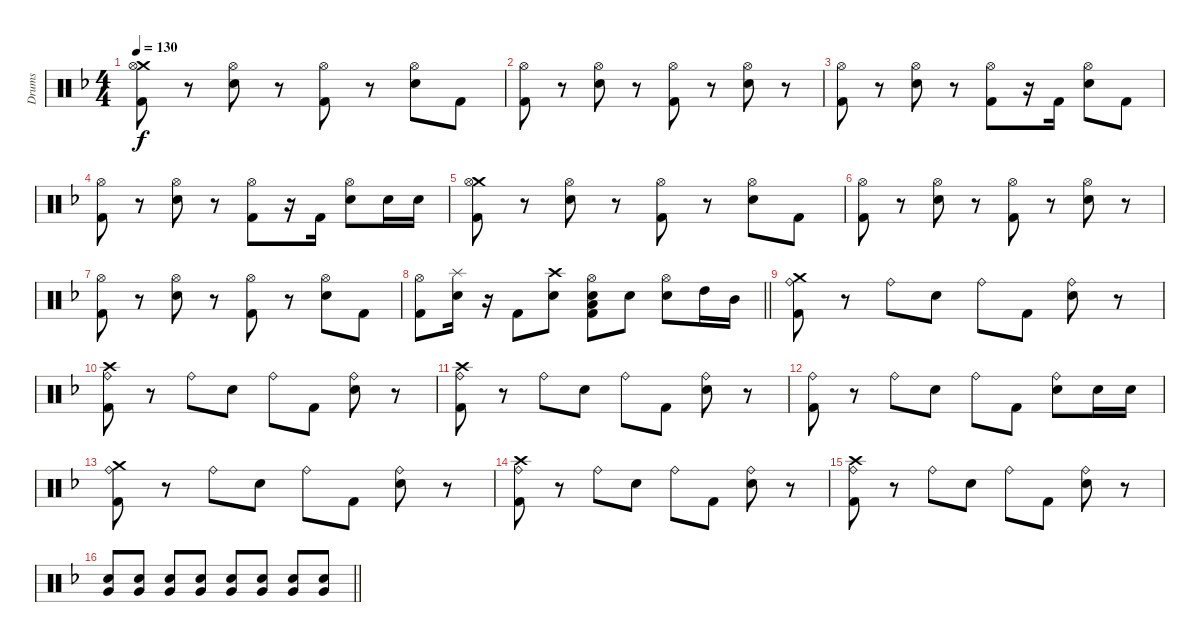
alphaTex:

\track ("Drums" "Drums") {instrument percussion}
\staff {score}
\articulation defaults
\ts (4 4)
\tempo 130
\clef neutral
\ks dminor
("Crash medium (hit)" "Hi-Hat (open)" "Kick (hit) 2").8{dy f} r.8 ("Hi-Hat (open)" "Electric Snare (hit)").8 r.8 ("Hi-Hat (open)" "Kick (hit) 2").8 r.8 ("Hi-Hat (open)" "Electric Snare (hit)").8 "Kick (hit) 2".8 |
("Hi-Hat (open)" "Kick (hit) 2").8 r.8 ("Hi-Hat (open)" "Electric Snare (hit)").8 r.8 ("Hi-Hat (open)" "Kick (hit) 2").8 r.8 ("Hi-Hat (open)" "Electric Snare (hit)").8 r.8 |
("Hi-Hat (open)" "Kick (hit) 2").8 r.8 ("Hi-Hat (open)" "Electric Snare (hit)").8 r.8 ("Hi-Hat (open)" "Kick (hit) 2").8 r.16 "Kick (hit) 2".16 ("Hi-Hat (open)" "Electric Snare (hit)").8 "Kick (hit) 2".8 |
("Hi-Hat (open)" "Kick (hit) 2").8 r.8 ("Hi-Hat (open)" "Electric Snare (hit)").8 r.8 ("Hi-Hat (open)" "Kick (hit) 2").8 r.16 "Kick (hit) 2".16 ("Hi-Hat (open)" "Electric Snare (hit)").8 "Electric Snare (hit)".16 "Electric Snare (hit)".16 |
("Crash medium (hit)" "Hi-Hat (open)" "Kick (hit) 2").8 r.8 ("Hi-Hat (open)" "Electric Snare (hit)").8 r.8 ("Hi-Hat (open)" "Kick (hit) 2").8 r.8 ("Hi-Hat (open)" "Electric Snare (hit)").8 "Kick (hit) 2".8 |
("Hi-Hat (open)" "Kick (hit) 2").8 r.8 ("Hi-Hat (open)" "Electric Snare (hit)").8 r.8 ("Hi-Hat (open)" "Kick (hit) 2").8 r.8 ("Hi-Hat (open)" "Electric Snare (hit)").8 r.8 |
("Hi-Hat (open)" "Kick (hit) 2").8 r.8 ("Hi-Hat (open)" "Electric Snare (hit)").8 r.8 ("Hi-Hat (open)" "Kick (hit) 2").8 r.8 ("Hi-Hat (open)" "Electric Snare (hit)").8 "Kick (hit) 2".8 |
\barLineRight lightlight
("Hi-Hat (open)" "Kick (hit) 2").8 ("Splash (hit)" "Electric Snare (hit)").16 r.16 "Kick (hit) 2".8 ("Crash high (hit)" "Electric Snare (hit)").8 ("Hi-Hat (open)" "Electric Snare (hit)" "Low Tom (hit)" "Kick (hit) 2").8 "Electric Snare (hit)".8 ("Hi-Hat (open)" "Electric Snare (hit)").8 "High Tom (hit)".16 "Mid Tom (hit)".16 |
\section ("" "")
("Crash medium (hit)" "Ride (bell)" "Kick (hit) 2").8 r.8 "Ride (bell)".8 "Electric Snare (hit)".8 "Ride (bell)".8 "Kick (hit) 2".8 ("Ride (bell)" "Electric Snare (hit)").8 r.8 |
("Crash high (hit)" "Ride (bell)" "Kick (hit) 2").8 r.8 "Ride (bell)".8 "Electric Snare (hit)".8 "Ride (bell)".8 "Kick (hit) 2".8 ("Ride (bell)" "Electric Snare (hit)").8 r.8 |
("Crash high (hit)" "Ride (bell)" "Kick (hit) 2").8 r.8 "Ride (bell)".8 "Electric Snare (hit)".8 "Ride (bell)".8 "Kick (hit) 2".8 ("Ride (bell)" "Electric Snare (hit)").8 r.8 |
("Ride (bell)" "Kick (hit) 2").8 r.8 "Ride (bell)".8 "Electric Snare (hit)".8 "Ride (bell)".8 "Kick (hit) 2".8 ("Ride (bell)" "Electric Snare (hit)").8 "Electric Snare (hit)".16 "Electric Snare (hit)".16 |
("Crash medium (hit)" "Ride (bell)" "Kick (hit) 2").8 r.8 "Ride (bell)".8 "Electric Snare (hit)".8 "Ride (bell)".8 "Kick (hit) 2".8 ("Ride (bell)" "Electric Snare (hit)").8 r.8 |
("Crash high (hit)" "Ride (bell)" "Kick (hit) 2").8 r.8 "Ride (bell)".8 "Electric Snare (hit)".8 "Ride (bell)".8 "Kick (hit) 2".8 ("Ride (bell)" "Electric Snare (hit)").8 r.8 |
("Crash high (hit)" "Ride (bell)" "Kick (hit) 2").8 r.8 "Ride (bell)".8 "Electric Snare (hit)".8 "Ride (bell)".8 "Kick (hit) 2".8 ("Ride (bell)" "Electric Snare (hit)").8 r.8 |
\barLineRight lightlight
("Electric Snare (hit)" "Very Low Tom (hit)").8 ("Electric Snare (hit)" "Very Low Tom (hit)").8 ("Electric Snare (hit)" "Very Low Tom (hit)").8 ("Electric Snare (hit)" "Very Low Tom (hit)").8 ("Electric Snare (hit)" "Very Low Tom (hit)").8 ("Electric Snare (hit)" "Very Low Tom (hit)").8 ("Electric Snare (hit)" "Very Low Tom (hit)").8 ("Electric Snare (hit)" "Very Low Tom (hit)").8
